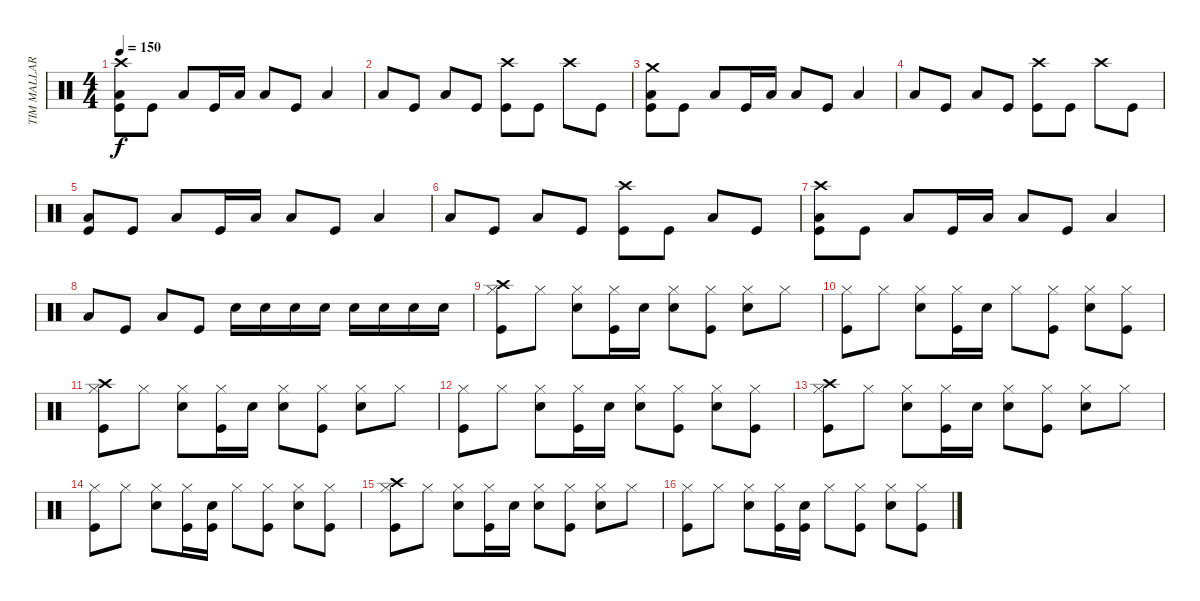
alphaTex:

\track ("TIM MALLARE - drums" "TIM MALLAR") {instrument percussion}
\staff {score}
\articulation defaults
\ts (4 4)
\tempo 150
\clef neutral
\ks c
("Crash high (hit)" "Low Tom (hit)" "Kick (hit)").8{dy f} "Kick (hit)".8 "Low Tom (hit)".8 "Kick (hit)".16 "Low Tom (hit)".16 "Low Tom (hit)".8 "Kick (hit)".8 "Low Tom (hit)".4 |
"Low Tom (hit)".8 "Kick (hit)".8 "Low Tom (hit)".8 "Kick (hit)".8 ("Crash high (hit)" "Kick (hit)").8 "Kick (hit)".8 "Crash high (hit)".8 "Kick (hit)".8 |
("Crash medium (hit)" "Low Tom (hit)" "Kick (hit)").8 "Kick (hit)".8 "Low Tom (hit)".8 "Kick (hit)".16 "Low Tom (hit)".16 "Low Tom (hit)".8 "Kick (hit)".8 "Low Tom (hit)".4 |
"Low Tom (hit)".8 "Kick (hit)".8 "Low Tom (hit)".8 "Kick (hit)".8 ("Crash high (hit)" "Kick (hit)").8 "Kick (hit)".8 "Crash high (hit)".8 "Kick (hit)".8 |
("Low Tom (hit)" "Kick (hit)").8 "Kick (hit)".8 "Low Tom (hit)".8 "Kick (hit)".16 "Low Tom (hit)".16 "Low Tom (hit)".8 "Kick (hit)".8 "Low Tom (hit)".4 |
"Low Tom (hit)".8 "Kick (hit)".8 "Low Tom (hit)".8 "Kick (hit)".8 ("Crash high (hit)" "Kick (hit)").8 "Kick (hit)".8 "Low Tom (hit)".8 "Kick (hit)".8 |
("Crash high (hit)" "Low Tom (hit)" "Kick (hit)").8 "Kick (hit)".8 "Low Tom (hit)".8 "Kick (hit)".16 "Low Tom (hit)".16 "Low Tom (hit)".8 "Kick (hit)".8 "Low Tom (hit)".4 |
"Low Tom (hit)".8 "Kick (hit)".8 "Low Tom (hit)".8 "Kick (hit)".8 "Electric Snare (hit)".16 "Electric Snare (hit)".16 "Electric Snare (hit)".16 "Electric Snare (hit)".16 "Electric Snare (hit)".16 "Electric Snare (hit)".16 "Electric Snare (hit)".16 "Electric Snare (hit)".16 |
("Crash high (hit)" "Hi-Hat (closed)" "Kick (hit)").8 "Hi-Hat (closed)".8 ("Hi-Hat (closed)" "Electric Snare (hit)").8 ("Hi-Hat (closed)" "Kick (hit)").16 "Electric Snare (hit)".16 ("Hi-Hat (closed)" "Electric Snare (hit)").8 ("Hi-Hat (closed)" "Kick (hit)").8 ("Hi-Hat (closed)" "Electric Snare (hit)").8 "Hi-Hat (closed)".8 |
("Hi-Hat (closed)" "Kick (hit)").8 "Hi-Hat (closed)".8 ("Hi-Hat (closed)" "Electric Snare (hit)").8 ("Hi-Hat (closed)" "Kick (hit)").16 "Electric Snare (hit)".16 "Hi-Hat (closed)".8 ("Hi-Hat (closed)" "Kick (hit)").8 ("Hi-Hat (closed)" "Electric Snare (hit)").8 ("Hi-Hat (closed)" "Kick (hit)").8 |
("Crash high (hit)" "Hi-Hat (closed)" "Kick (hit)").8 "Hi-Hat (closed)".8 ("Hi-Hat (closed)" "Electric Snare (hit)").8 ("Hi-Hat (closed)" "Kick (hit)").16 "Electric Snare (hit)".16 ("Hi-Hat (closed)" "Electric Snare (hit)").8 ("Hi-Hat (closed)" "Kick (hit)").8 ("Hi-Hat (closed)" "Electric Snare (hit)").8 "Hi-Hat (closed)".8 |
("Hi-Hat (closed)" "Kick (hit)").8 "Hi-Hat (closed)".8 ("Hi-Hat (closed)" "Electric Snare (hit)").8 ("Hi-Hat (closed)" "Kick (hit)").16 "Electric Snare (hit)".16 ("Hi-Hat (closed)" "Electric Snare (hit)").8 ("Hi-Hat (closed)" "Kick (hit)").8 ("Hi-Hat (closed)" "Electric Snare (hit)").8 ("Hi-Hat (closed)" "Kick (hit)").8 |
("Crash high (hit)" "Hi-Hat (closed)" "Kick (hit)").8 "Hi-Hat (closed)".8 ("Hi-Hat (closed)" "Electric Snare (hit)").8 ("Hi-Hat (closed)" "Kick (hit)").16 "Electric Snare (hit)".16 ("Hi-Hat (closed)" "Electric Snare (hit)").8 ("Hi-Hat (closed)" "Kick (hit)").8 ("Hi-Hat (closed)" "Electric Snare (hit)").8 "Hi-Hat (closed)".8 |
("Hi-Hat (closed)" "Kick (hit)").8 "Hi-Hat (closed)".8 ("Hi-Hat (closed)" "Electric Snare (hit)").8 ("Hi-Hat (closed)" "Kick (hit)").16 ("Electric Snare (hit)" "Kick (hit)").16 "Hi-Hat (closed)".8 ("Hi-Hat (closed)" "Kick (hit)").8 ("Hi-Hat (closed)" "Electric Snare (hit)").8 ("Hi-Hat (closed)" "Kick (hit)").8 |
("Crash high (hit)" "Hi-Hat (closed)" "Kick (hit)").8 "Hi-Hat (closed)".8 ("Hi-Hat (closed)" "Electric Snare (hit)").8 ("Hi-Hat (closed)" "Kick (hit)").16 "Electric Snare (hit)".16 ("Hi-Hat (closed)" "Electric Snare (hit)").8 ("Hi-Hat (closed)" "Kick (hit)").8 ("Hi-Hat (closed)" "Electric Snare (hit)").8 "Hi-Hat (closed)".8 |
("Hi-Hat (closed)" "Kick (hit)").8 "Hi-Hat (closed)".8 ("Hi-Hat (closed)" "Electric Snare (hit)").8 ("Hi-Hat (closed)" "Kick (hit)").16 ("Electric Snare (hit)" "Kick (hit)").16 "Hi-Hat (closed)".8 ("Hi-Hat (closed)" "Kick (hit)").8 ("Hi-Hat (closed)" "Electric Snare (hit)").8 ("Hi-Hat (closed)" "Kick (hit)").8
